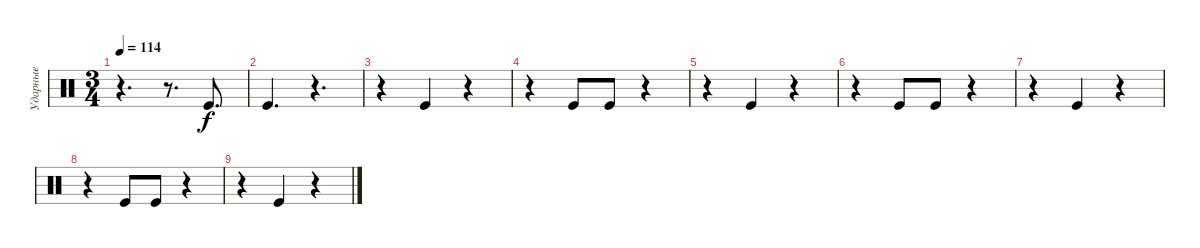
\track ("Ударные" "Ударные") {instrument percussion}
\staff {score}
\articulation defaults
\ts (3 4)
\tempo 114
\clef neutral
\ks c
r.4{d dy f} r.8{d} "Kick (hit)".8{d} |
"Kick (hit)".4{d} r.4{d} |
r.4 "Kick (hit)".4 r.4 |
r.4 "Kick (hit)".8 "Kick (hit)".8 r.4 |
r.4 "Kick (hit)".4 r.4 |
r.4 "Kick (hit)".8 "Kick (hit)".8 r.4 |
r.4 "Kick (hit)".4 r.4 |
r.4 "Kick (hit)".8 "Kick (hit)".8 r.4 |
r.4 "Kick (hit)".4 r.4
